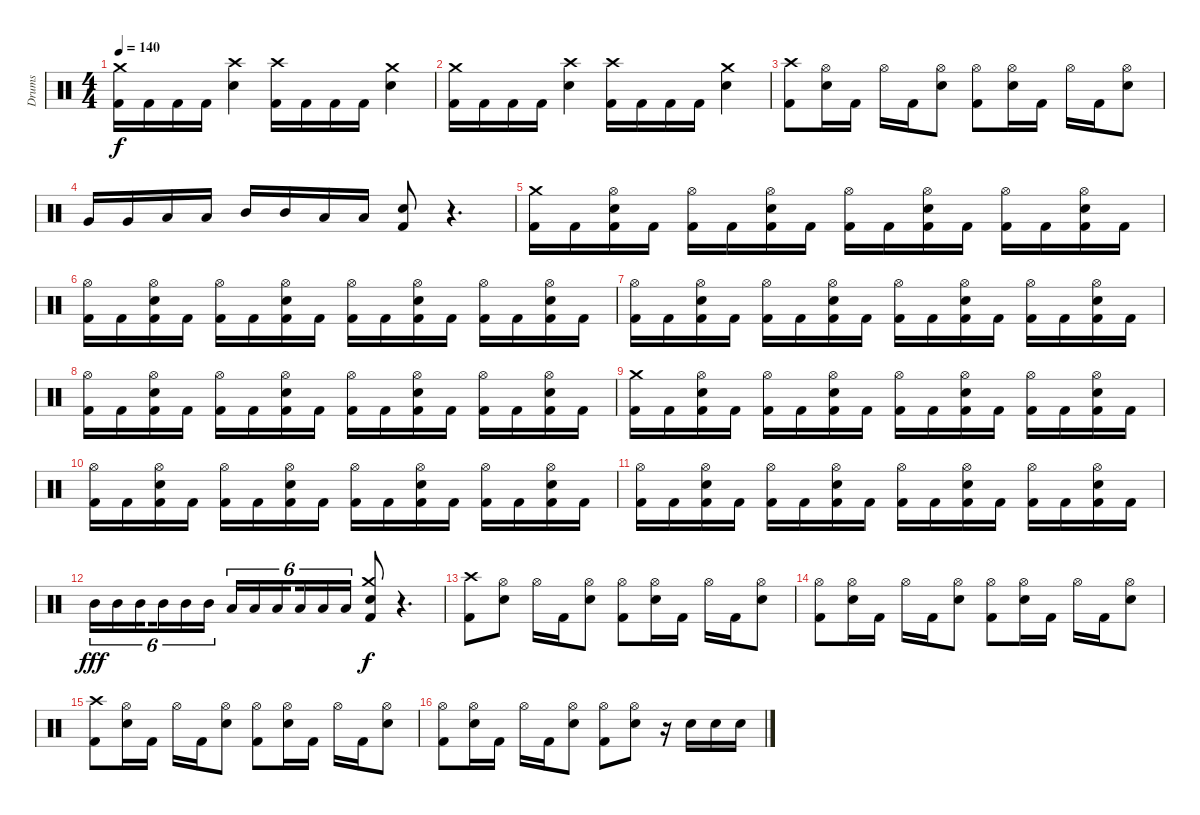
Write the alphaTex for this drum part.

\track ("Drums" "Drums") {instrument percussion}
\staff {score}
\articulation defaults
\ts (4 4)
\tempo 140
\clef neutral
\ks c
("Kick (hit) 2" "Crash medium (hit)").16{dy f} "Kick (hit) 2".16 "Kick (hit) 2".16 "Kick (hit) 2".16 ("Crash high (hit)" "Snare (hit) 2").4 ("Kick (hit) 2" "Crash high (hit)").16 "Kick (hit) 2".16 "Kick (hit) 2".16 "Kick (hit) 2".16 ("Crash medium (hit)" "Snare (hit) 2").4 |
("Kick (hit) 2" "Crash medium (hit)").16 "Kick (hit) 2".16 "Kick (hit) 2".16 "Kick (hit) 2".16 ("Crash high (hit)" "Snare (hit) 2").4 ("Kick (hit) 2" "Crash high (hit)").16 "Kick (hit) 2".16 "Kick (hit) 2".16 "Kick (hit) 2".16 ("Crash medium (hit)" "Snare (hit) 2").4 |
("Kick (hit) 2" "Crash high (hit)").8 ("Hi-Hat (open)" "Snare (hit) 2").16 "Kick (hit) 2".16 "Hi-Hat (open)".16 "Kick (hit) 2".16 ("Snare (hit) 2" "Hi-Hat (open)").8 ("Kick (hit) 2" "Hi-Hat (open)").8 ("Snare (hit) 2" "Hi-Hat (open)").16 "Kick (hit) 2".16 "Hi-Hat (open)".16 "Kick (hit) 2".16 ("Snare (hit) 2" "Hi-Hat (open)").8 |
"Very Low Tom (hit)".16 "Very Low Tom (hit)".16 "Low Tom (hit)".16 "Low Tom (hit)".16 "Mid Tom (hit)".16 "Mid Tom (hit)".16 "Low Tom (hit)".16 "Low Tom (hit)".16 ("Kick (hit) 2" "Snare (hit) 2").8 r.4{d} |
("Kick (hit) 2" "Crash medium (hit)").16 "Kick (hit) 2".16 ("Snare (hit) 2" "Hi-Hat (open)" "Kick (hit) 2").16 "Kick (hit) 2".16 ("Kick (hit) 2" "Hi-Hat (open)").16 "Kick (hit) 2".16 ("Snare (hit) 2" "Hi-Hat (open)" "Kick (hit) 2").16 "Kick (hit) 2".16 ("Kick (hit) 2" "Hi-Hat (open)").16 "Kick (hit) 2".16 ("Snare (hit) 2" "Kick (hit) 2" "Hi-Hat (open)").16 "Kick (hit) 2".16 ("Hi-Hat (open)" "Kick (hit) 2").16 "Kick (hit) 2".16 ("Snare (hit) 2" "Kick (hit) 2" "Hi-Hat (open)").16 "Kick (hit) 2".16 |
("Hi-Hat (open)" "Kick (hit) 2").16 "Kick (hit) 2".16 ("Hi-Hat (open)" "Kick (hit) 2" "Snare (hit) 2").16 "Kick (hit) 2".16 ("Hi-Hat (open)" "Kick (hit) 2").16 "Kick (hit) 2".16 ("Hi-Hat (open)" "Kick (hit) 2" "Snare (hit) 2").16 "Kick (hit) 2".16 ("Hi-Hat (open)" "Kick (hit) 2").16 "Kick (hit) 2".16 ("Snare (hit) 2" "Kick (hit) 2" "Hi-Hat (open)").16 "Kick (hit) 2".16 ("Hi-Hat (open)" "Kick (hit) 2").16 "Kick (hit) 2".16 ("Hi-Hat (open)" "Kick (hit) 2" "Snare (hit) 2").16 "Kick (hit) 2".16 |
("Hi-Hat (open)" "Kick (hit) 2").16 "Kick (hit) 2".16 ("Hi-Hat (open)" "Kick (hit) 2" "Snare (hit) 2").16 "Kick (hit) 2".16 ("Hi-Hat (open)" "Kick (hit) 2").16 "Kick (hit) 2".16 ("Hi-Hat (open)" "Kick (hit) 2" "Snare (hit) 2").16 "Kick (hit) 2".16 ("Hi-Hat (open)" "Kick (hit) 2").16 "Kick (hit) 2".16 ("Snare (hit) 2" "Kick (hit) 2" "Hi-Hat (open)").16 "Kick (hit) 2".16 ("Hi-Hat (open)" "Kick (hit) 2").16 "Kick (hit) 2".16 ("Hi-Hat (open)" "Kick (hit) 2" "Snare (hit) 2").16 "Kick (hit) 2".16 |
("Hi-Hat (open)" "Kick (hit) 2").16 "Kick (hit) 2".16 ("Hi-Hat (open)" "Kick (hit) 2" "Snare (hit) 2").16 "Kick (hit) 2".16 ("Hi-Hat (open)" "Kick (hit) 2").16 "Kick (hit) 2".16 ("Hi-Hat (open)" "Kick (hit) 2" "Snare (hit) 2").16 "Kick (hit) 2".16 ("Hi-Hat (open)" "Kick (hit) 2").16 "Kick (hit) 2".16 ("Snare (hit) 2" "Kick (hit) 2" "Hi-Hat (open)").16 "Kick (hit) 2".16 ("Hi-Hat (open)" "Kick (hit) 2").16 "Kick (hit) 2".16 ("Hi-Hat (open)" "Kick (hit) 2" "Snare (hit) 2").16 "Kick (hit) 2".16 |
("Kick (hit) 2" "Crash medium (hit)").16 "Kick (hit) 2".16 ("Snare (hit) 2" "Hi-Hat (open)" "Kick (hit) 2").16 "Kick (hit) 2".16 ("Kick (hit) 2" "Hi-Hat (open)").16 "Kick (hit) 2".16 ("Snare (hit) 2" "Hi-Hat (open)" "Kick (hit) 2").16 "Kick (hit) 2".16 ("Kick (hit) 2" "Hi-Hat (open)").16 "Kick (hit) 2".16 ("Snare (hit) 2" "Kick (hit) 2" "Hi-Hat (open)").16 "Kick (hit) 2".16 ("Hi-Hat (open)" "Kick (hit) 2").16 "Kick (hit) 2".16 ("Snare (hit) 2" "Kick (hit) 2" "Hi-Hat (open)").16 "Kick (hit) 2".16 |
("Hi-Hat (open)" "Kick (hit) 2").16 "Kick (hit) 2".16 ("Hi-Hat (open)" "Kick (hit) 2" "Snare (hit) 2").16 "Kick (hit) 2".16 ("Hi-Hat (open)" "Kick (hit) 2").16 "Kick (hit) 2".16 ("Hi-Hat (open)" "Kick (hit) 2" "Snare (hit) 2").16 "Kick (hit) 2".16 ("Hi-Hat (open)" "Kick (hit) 2").16 "Kick (hit) 2".16 ("Snare (hit) 2" "Kick (hit) 2" "Hi-Hat (open)").16 "Kick (hit) 2".16 ("Hi-Hat (open)" "Kick (hit) 2").16 "Kick (hit) 2".16 ("Hi-Hat (open)" "Kick (hit) 2" "Snare (hit) 2").16 "Kick (hit) 2".16 |
("Hi-Hat (open)" "Kick (hit) 2").16 "Kick (hit) 2".16 ("Hi-Hat (open)" "Kick (hit) 2" "Snare (hit) 2").16 "Kick (hit) 2".16 ("Hi-Hat (open)" "Kick (hit) 2").16 "Kick (hit) 2".16 ("Hi-Hat (open)" "Kick (hit) 2" "Snare (hit) 2").16 "Kick (hit) 2".16 ("Hi-Hat (open)" "Kick (hit) 2").16 "Kick (hit) 2".16 ("Snare (hit) 2" "Kick (hit) 2" "Hi-Hat (open)").16 "Kick (hit) 2".16 ("Hi-Hat (open)" "Kick (hit) 2").16 "Kick (hit) 2".16 ("Hi-Hat (open)" "Kick (hit) 2" "Snare (hit) 2").16 "Kick (hit) 2".16 |
"Mid Tom (hit)".16{tu (6 4) dy fff} "Mid Tom (hit)".16{tu (6 4)} "Mid Tom (hit)".16{tu (6 4) beam splitsecondary} "Mid Tom (hit)".16{tu (6 4)} "Mid Tom (hit)".16{tu (6 4)} "Mid Tom (hit)".16{tu (6 4)} "Low Tom (hit)".16{tu (6 4)} "Low Tom (hit)".16{tu (6 4)} "Low Tom (hit)".16{tu (6 4) beam splitsecondary} "Low Tom (hit)".16{tu (6 4)} "Low Tom (hit)".16{tu (6 4)} "Low Tom (hit)".16{tu (6 4)} ("Crash medium (hit)" "Snare (hit) 2" "Kick (hit) 2").8{dy f} r.4{d} |
("Kick (hit) 2" "Crash high (hit)").8 ("Snare (hit) 2" "Hi-Hat (open)").8 "Hi-Hat (open)".16 "Kick (hit) 2".16 ("Snare (hit) 2" "Hi-Hat (open)").8 ("Kick (hit) 2" "Hi-Hat (open)").8 ("Hi-Hat (open)" "Snare (hit) 2").16 "Kick (hit) 2".16 "Hi-Hat (open)".16 "Kick (hit) 2".16 ("Hi-Hat (open)" "Snare (hit) 2").8 |
("Hi-Hat (open)" "Kick (hit) 2").8 ("Hi-Hat (open)" "Snare (hit) 2").16 "Kick (hit) 2".16 "Hi-Hat (open)".16 "Kick (hit) 2".16 ("Hi-Hat (open)" "Snare (hit) 2").8 ("Hi-Hat (open)" "Kick (hit) 2").8 ("Snare (hit) 2" "Hi-Hat (open)").16 "Kick (hit) 2".16 "Hi-Hat (open)".16 "Kick (hit) 2".16 ("Snare (hit) 2" "Hi-Hat (open)").8 |
("Kick (hit) 2" "Crash high (hit)").8 ("Hi-Hat (open)" "Snare (hit) 2").16 "Kick (hit) 2".16 "Hi-Hat (open)".16 "Kick (hit) 2".16 ("Hi-Hat (open)" "Snare (hit) 2").8 ("Kick (hit) 2" "Hi-Hat (open)").8 ("Snare (hit) 2" "Hi-Hat (open)").16 "Kick (hit) 2".16 "Hi-Hat (open)".16 "Kick (hit) 2".16 ("Snare (hit) 2" "Hi-Hat (open)").8 |
("Kick (hit) 2" "Hi-Hat (open)").8 ("Snare (hit) 2" "Hi-Hat (open)").16 "Kick (hit) 2".16 "Hi-Hat (open)".16 "Kick (hit) 2".16 ("Hi-Hat (open)" "Snare (hit) 2").8 ("Hi-Hat (open)" "Kick (hit) 2").8 ("Hi-Hat (open)" "Snare (hit) 2").8 r.16 "Snare (hit) 2".16 "Snare (hit) 2".16 "Snare (hit) 2".16
